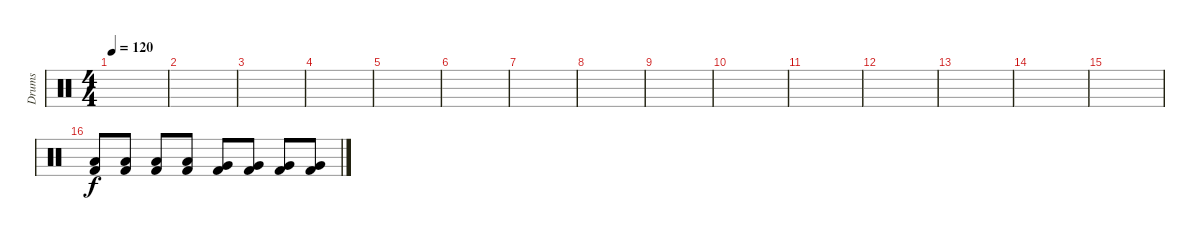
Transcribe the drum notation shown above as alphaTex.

\track ("Drums" "Drums") {instrument percussion}
\staff {score}
\articulation defaults
\ts (4 4)
\tempo 120
\clef neutral
\ks c
|
|
|
|
|
|
|
|
|
|
|
|
|
|
|
("Low Tom (hit)" "Kick (hit) 2").8 ("Low Tom (hit)" "Kick (hit) 2").8 ("Low Tom (hit)" "Kick (hit) 2").8 ("Low Tom (hit)" "Kick (hit) 2").8 ("Very Low Tom (hit)" "Kick (hit) 2").8 ("Very Low Tom (hit)" "Kick (hit) 2").8 ("Very Low Tom (hit)" "Kick (hit) 2").8 ("Very Low Tom (hit)" "Kick (hit) 2").8
